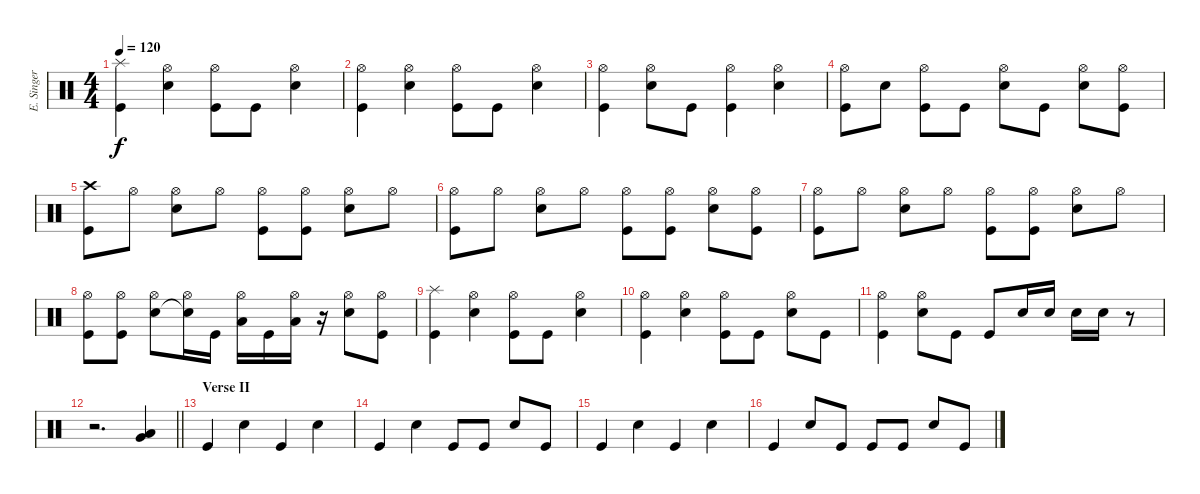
\track ("E. Singer - Drums" "E. Singer ") {instrument percussion}
\staff {score}
\articulation defaults
\ts (4 4)
\tempo 120
\clef neutral
\ks c
("Kick (hit)" "Splash (hit)").4{dy f} ("Snare (hit) 2" "Hi-Hat (open)").4 ("Kick (hit)" "Hi-Hat (open)").8 "Kick (hit)".8 ("Snare (hit) 2" "Hi-Hat (open)").4 |
("Kick (hit)" "Hi-Hat (open)").4 ("Snare (hit) 2" "Hi-Hat (open)").4 ("Kick (hit)" "Hi-Hat (open)").8 "Kick (hit)".8 ("Snare (hit) 2" "Hi-Hat (open)").4 |
("Kick (hit)" "Hi-Hat (open)").4 ("Snare (hit) 2" "Hi-Hat (open)").8 "Kick (hit)".8 ("Kick (hit)" "Hi-Hat (open)").4 ("Snare (hit) 2" "Hi-Hat (open)").4 |
("Kick (hit)" "Hi-Hat (open)").8 "Snare (hit) 2".8 ("Kick (hit)" "Hi-Hat (open)").8 "Kick (hit)".8 ("Snare (hit) 2" "Hi-Hat (open)").8 "Kick (hit)".8 ("Snare (hit) 2" "Hi-Hat (open)").8 ("Kick (hit)" "Hi-Hat (open)").8 |
("Kick (hit)" "Crash high (hit)").8 "Hi-Hat (open)".8 ("Snare (hit) 2" "Hi-Hat (open)").8 "Hi-Hat (open)".8 ("Kick (hit)" "Hi-Hat (open)").8 ("Kick (hit)" "Hi-Hat (open)").8 ("Snare (hit) 2" "Hi-Hat (open)").8 "Hi-Hat (open)".8 |
("Kick (hit)" "Hi-Hat (open)").8 "Hi-Hat (open)".8 ("Snare (hit) 2" "Hi-Hat (open)").8 "Hi-Hat (open)".8 ("Kick (hit)" "Hi-Hat (open)").8 ("Kick (hit)" "Hi-Hat (open)").8 ("Snare (hit) 2" "Hi-Hat (open)").8 ("Kick (hit)" "Hi-Hat (open)").8 |
("Kick (hit)" "Hi-Hat (open)").8 "Hi-Hat (open)".8 ("Snare (hit) 2" "Hi-Hat (open)").8 "Hi-Hat (open)".8 ("Kick (hit)" "Hi-Hat (open)").8 ("Kick (hit)" "Hi-Hat (open)").8 ("Snare (hit) 2" "Hi-Hat (open)").8 "Hi-Hat (open)".8 |
("Kick (hit)" "Hi-Hat (open)").8 ("Kick (hit)" "Hi-Hat (open)").8 ("Snare (hit) 2" "Hi-Hat (open)").8 ("Snare (hit)"{t} "Hi-Hat (open)").16 "Kick (hit)".16 ("Low Floor Tom (hit)" "Hi-Hat (open)").16 "Kick (hit)".16 ("Low Floor Tom (hit)" "Hi-Hat (open)").16 r.16 ("Snare (hit) 2" "Hi-Hat (open)").8 ("Kick (hit)" "Hi-Hat (open)").8 |
("Kick (hit)" "Splash (hit)").4 ("Snare (hit) 2" "Hi-Hat (open)").4 ("Kick (hit)" "Hi-Hat (open)").8 "Kick (hit)".8 ("Snare (hit) 2" "Hi-Hat (open)").4 |
("Kick (hit)" "Hi-Hat (open)").4 ("Snare (hit) 2" "Hi-Hat (open)").4 ("Kick (hit)" "Hi-Hat (open)").8 "Kick (hit)".8 ("Snare (hit) 2" "Hi-Hat (open)").8 "Kick (hit)".8 |
("Kick (hit)" "Hi-Hat (open)").4 ("Snare (hit) 2" "Hi-Hat (open)").8 "Kick (hit)".8 "Kick (hit)".8 "Snare (hit) 2".16 "Snare (hit) 2".16 "Snare (hit) 2".16 "Snare (hit) 2".16 r.8 |
\barLineRight lightlight
r.2{d} ("Low Floor Tom (hit)" "Very Low Tom (hit)").4 |
\section ("" "Verse II")
"Kick (hit)".4 "Snare (hit) 2".4 "Kick (hit)".4 "Snare (hit) 2".4 |
"Kick (hit)".4 "Snare (hit) 2".4 "Kick (hit)".8 "Kick (hit)".8 "Snare (hit) 2".8 "Kick (hit)".8 |
"Kick (hit)".4 "Snare (hit) 2".4 "Kick (hit)".4 "Snare (hit) 2".4 |
"Kick (hit)".4 "Snare (hit) 2".8 "Kick (hit)".8 "Kick (hit)".8 "Kick (hit)".8 "Snare (hit) 2".8 "Kick (hit)".8
